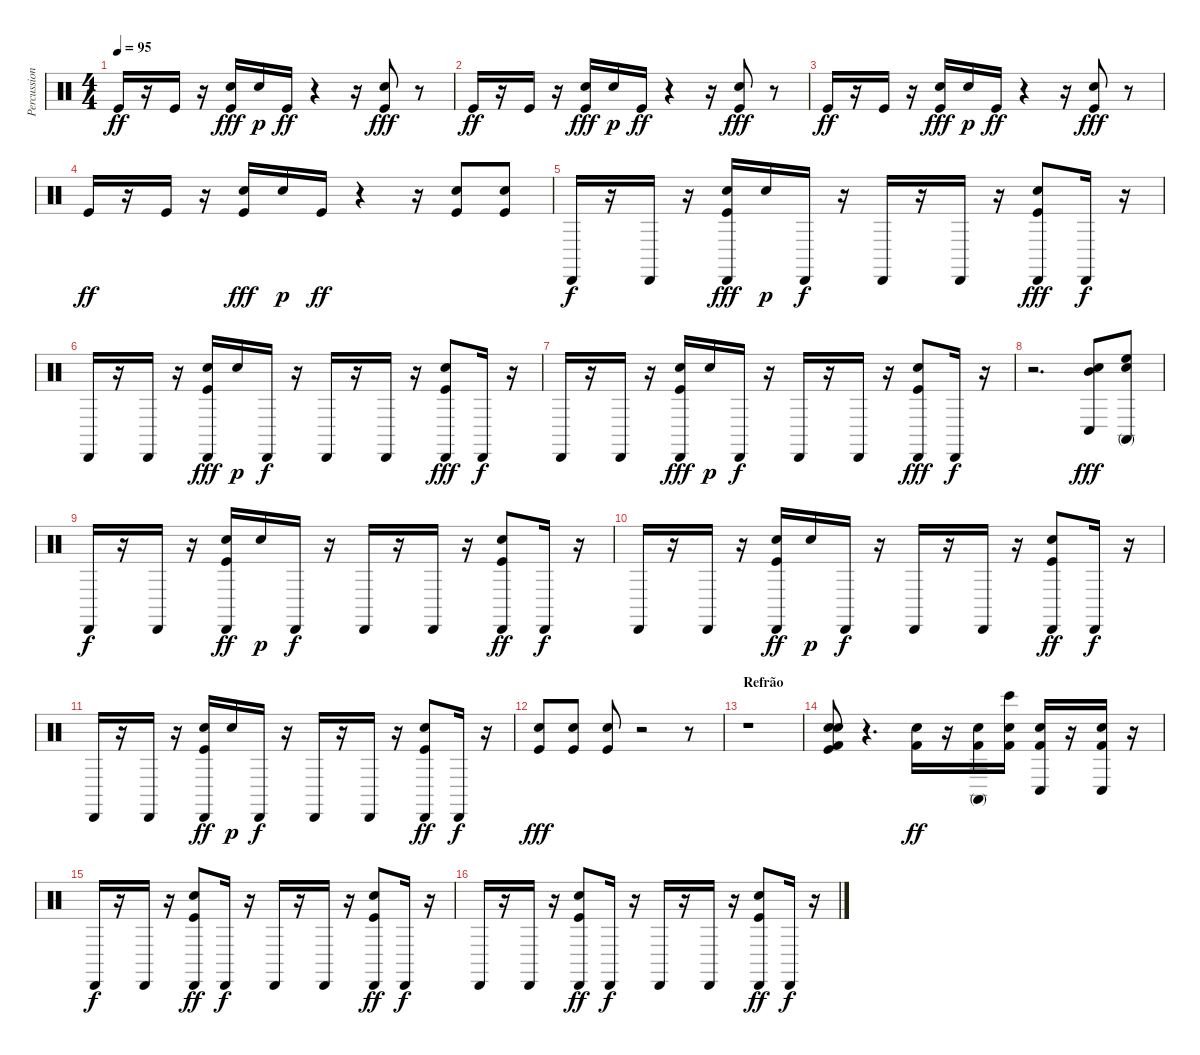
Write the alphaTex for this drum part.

\track ("Percussion" "Percussion") {instrument percussion}
\staff {score}
\articulation defaults
\ts (4 4)
\tempo 95
\clef neutral
\ks c "Kick (hit)".16{dy ff}
r.16 "Kick (hit)".16 r.16 ("Snare (hit) 2" "Kick (hit)").16{dy fff} "Hand Clap (hit)".16{dy p} "Kick (hit)".16{dy ff} r.4 r.16 ("Snare (hit) 2" "Kick (hit)").8{dy fff} r.8 |
"Kick (hit)".16{dy ff} r.16 "Kick (hit)".16 r.16 ("Snare (hit) 2" "Kick (hit)").16{dy fff} "Hand Clap (hit)".16{dy p} "Kick (hit)".16{dy ff} r.4 r.16 ("Snare (hit) 2" "Kick (hit)").8{dy fff} r.8 |
"Kick (hit)".16{dy ff} r.16 "Kick (hit)".16 r.16 ("Snare (hit) 2" "Kick (hit)").16{dy fff} "Hand Clap (hit)".16{dy p} "Kick (hit)".16{dy ff} r.4 r.16 ("Snare (hit) 2" "Kick (hit)").8{dy fff} r.8 |
"Kick (hit)".16{dy ff} r.16 "Kick (hit)".16 r.16 ("Snare (hit) 2" "Kick (hit)").16{dy fff} "Hand Clap (hit)".16{dy p} "Kick (hit)".16{dy ff} r.4 r.16 ("Snare (hit) 2" "Kick (hit)").8 ("Snare (hit) 2" "Kick (hit)").8 |
"Cabasa (hit)".16{dy f} r.16 "Cabasa (hit)".16 r.16 ("Snare (hit) 2" "Kick (hit)" "Cabasa (hit)").16{dy fff} "Hand Clap (hit)".16{dy p} "Cabasa (hit)".16{dy f} r.16 "Cabasa (hit)".16 r.16 "Cabasa (hit)".16 r.16 ("Snare (hit) 2" "Kick (hit)" "Cabasa (hit)").8{dy fff} "Cabasa (hit)".16{dy f} r.16 |
"Cabasa (hit)".16 r.16 "Cabasa (hit)".16 r.16 ("Snare (hit) 2" "Kick (hit)" "Cabasa (hit)").16{dy fff} "Hand Clap (hit)".16{dy p} "Cabasa (hit)".16{dy f} r.16 "Cabasa (hit)".16 r.16 "Cabasa (hit)".16 r.16 ("Snare (hit) 2" "Kick (hit)" "Cabasa (hit)").8{dy fff} "Cabasa (hit)".16{dy f} r.16 |
"Cabasa (hit)".16 r.16 "Cabasa (hit)".16 r.16 ("Snare (hit) 2" "Kick (hit)" "Cabasa (hit)").16{dy fff} "Hand Clap (hit)".16{dy p} "Cabasa (hit)".16{dy f} r.16 "Cabasa (hit)".16 r.16 "Cabasa (hit)".16 r.16 ("Snare (hit) 2" "Kick (hit)" "Cabasa (hit)").8{dy fff} "Cabasa (hit)".16{dy f} r.16 |
r.2{d} ("Mid Tom (hit)" "Snare (hit) 2" "Conga low (hit)").8{dy fff} ("High Floor Tom (hit)" "Snare (hit) 2" "Conga high (mute)").8 |
"Cabasa (hit)".16{dy f} r.16 "Cabasa (hit)".16 r.16 ("Snare (hit) 2" "Kick (hit)" "Cabasa (hit)").16{dy ff} "Hand Clap (hit)".16{dy p} "Cabasa (hit)".16{dy f} r.16 "Cabasa (hit)".16 r.16 "Cabasa (hit)".16 r.16 ("Snare (hit) 2" "Kick (hit)" "Cabasa (hit)").8{dy ff} "Cabasa (hit)".16{dy f} r.16 |
"Cabasa (hit)".16 r.16 "Cabasa (hit)".16 r.16 ("Snare (hit) 2" "Kick (hit)" "Cabasa (hit)").16{dy ff} "Hand Clap (hit)".16{dy p} "Cabasa (hit)".16{dy f} r.16 "Cabasa (hit)".16 r.16 "Cabasa (hit)".16 r.16 ("Snare (hit) 2" "Kick (hit)" "Cabasa (hit)").8{dy ff} "Cabasa (hit)".16{dy f} r.16 |
"Cabasa (hit)".16 r.16 "Cabasa (hit)".16 r.16 ("Snare (hit) 2" "Kick (hit)" "Cabasa (hit)").16{dy ff} "Hand Clap (hit)".16{dy p} "Cabasa (hit)".16{dy f} r.16 "Cabasa (hit)".16 r.16 "Cabasa (hit)".16 r.16 ("Snare (hit) 2" "Kick (hit)" "Cabasa (hit)").8{dy ff} "Cabasa (hit)".16{dy f} r.16 |
("Kick (hit)" "Snare (hit) 2").8{dy fff} ("Kick (hit)" "Snare (hit) 2").8 ("Kick (hit)" "Snare (hit) 2").8 r.2 r.8 |
\section ("" "Refrão")
r.1 |
("Kick (hit) 2" "Kick (hit)" "Snare (hit) 2" "Electric Snare (hit)").8 r.4{d} ("Hand Clap (hit)" "Kick (hit) 2").16{dy ff} r.16 ("Hand Clap (hit)" "Kick (hit) 2" "Conga high (mute)").16 ("Hand Clap (hit)" "Kick (hit) 2" "Bongo High (hit)").16 ("Hand Clap (hit)" "Kick (hit) 2" "Conga low (hit)").16 r.16 ("Conga low (hit)" "Hand Clap (hit)" "Kick (hit) 2").16 r.16 |
"Cabasa (hit)".16{dy f} r.16 "Cabasa (hit)".16 r.16 ("Snare (hit) 2" "Kick (hit)" "Cabasa (hit)").8{dy ff} "Cabasa (hit)".16{dy f} r.16 "Cabasa (hit)".16 r.16 "Cabasa (hit)".16 r.16 ("Snare (hit) 2" "Kick (hit)" "Cabasa (hit)").8{dy ff} "Cabasa (hit)".16{dy f} r.16 |
"Cabasa (hit)".16 r.16 "Cabasa (hit)".16 r.16 ("Snare (hit) 2" "Kick (hit)" "Cabasa (hit)").8{dy ff} "Cabasa (hit)".16{dy f} r.16 "Cabasa (hit)".16 r.16 "Cabasa (hit)".16 r.16 ("Snare (hit) 2" "Kick (hit)" "Cabasa (hit)").8{dy ff} "Cabasa (hit)".16{dy f} r.16
